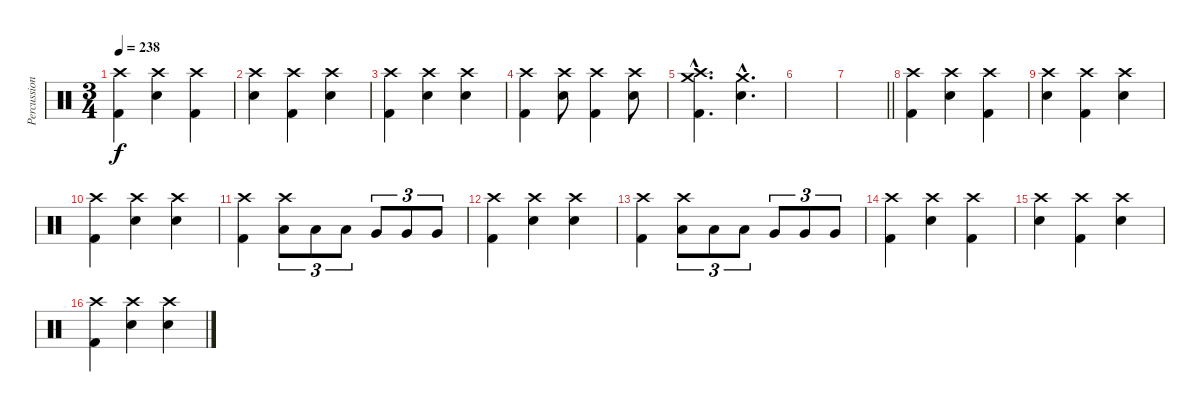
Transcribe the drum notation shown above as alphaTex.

\track ("Percussion" "Percussion") {instrument percussion}
\staff {score}
\articulation defaults
\ts (3 4)
\tempo 238
\clef neutral
\ks c
("Crash high (hit)" "Kick (hit) 2").4{dy f} ("Crash high (hit)" "Electric Snare (hit)").4 ("Crash high (hit)" "Kick (hit) 2").4 |
("Crash high (hit)" "Electric Snare (hit)").4 ("Crash high (hit)" "Kick (hit) 2").4 ("Crash high (hit)" "Electric Snare (hit)").4 |
("Crash high (hit)" "Kick (hit) 2").4 ("Crash high (hit)" "Electric Snare (hit)").4 ("Crash high (hit)" "Electric Snare (hit)").4 |
("Crash high (hit)" "Kick (hit) 2").4 ("Crash high (hit)" "Electric Snare (hit)").8 ("Crash high (hit)" "Kick (hit) 2").4 ("Crash high (hit)" "Electric Snare (hit)").8 |
("Crash medium (hit)"{hac} "Crash high (hit)"{hac} "Kick (hit) 2"{hac}).4{d} ("Crash medium (hit)"{hac} "Electric Snare (hit)"{hac}).4{d} |
|
\barLineRight lightlight
|
("Crash high (hit)" "Kick (hit) 2").4 ("Crash high (hit)" "Electric Snare (hit)").4 ("Crash high (hit)" "Kick (hit) 2").4 |
("Crash high (hit)" "Electric Snare (hit)").4 ("Crash high (hit)" "Kick (hit) 2").4 ("Crash high (hit)" "Electric Snare (hit)").4 |
("Crash high (hit)" "Kick (hit) 2").4 ("Crash high (hit)" "Electric Snare (hit)").4 ("Crash high (hit)" "Electric Snare (hit)").4 |
("Crash high (hit)" "Kick (hit) 2").4 ("Crash high (hit)" "Low Tom (hit)").8{tu (3 2)} "Low Tom (hit)".8{tu (3 2)} "Low Tom (hit)".8{tu (3 2)} "Very Low Tom (hit)".8{tu (3 2)} "Very Low Tom (hit)".8{tu (3 2)} "Very Low Tom (hit)".8{tu (3 2)} |
("Crash high (hit)" "Kick (hit) 2").4 ("Crash high (hit)" "Electric Snare (hit)").4 ("Crash high (hit)" "Electric Snare (hit)").4 |
("Crash high (hit)" "Kick (hit) 2").4 ("Crash high (hit)" "Low Tom (hit)").8{tu (3 2)} "Low Tom (hit)".8{tu (3 2)} "Low Tom (hit)".8{tu (3 2)} "Very Low Tom (hit)".8{tu (3 2)} "Very Low Tom (hit)".8{tu (3 2)} "Very Low Tom (hit)".8{tu (3 2)} |
("Crash high (hit)" "Kick (hit) 2").4 ("Crash high (hit)" "Electric Snare (hit)").4 ("Crash high (hit)" "Kick (hit) 2").4 |
("Crash high (hit)" "Electric Snare (hit)").4 ("Crash high (hit)" "Kick (hit) 2").4 ("Crash high (hit)" "Electric Snare (hit)").4 |
("Crash high (hit)" "Kick (hit) 2").4 ("Crash high (hit)" "Electric Snare (hit)").4 ("Crash high (hit)" "Electric Snare (hit)").4
